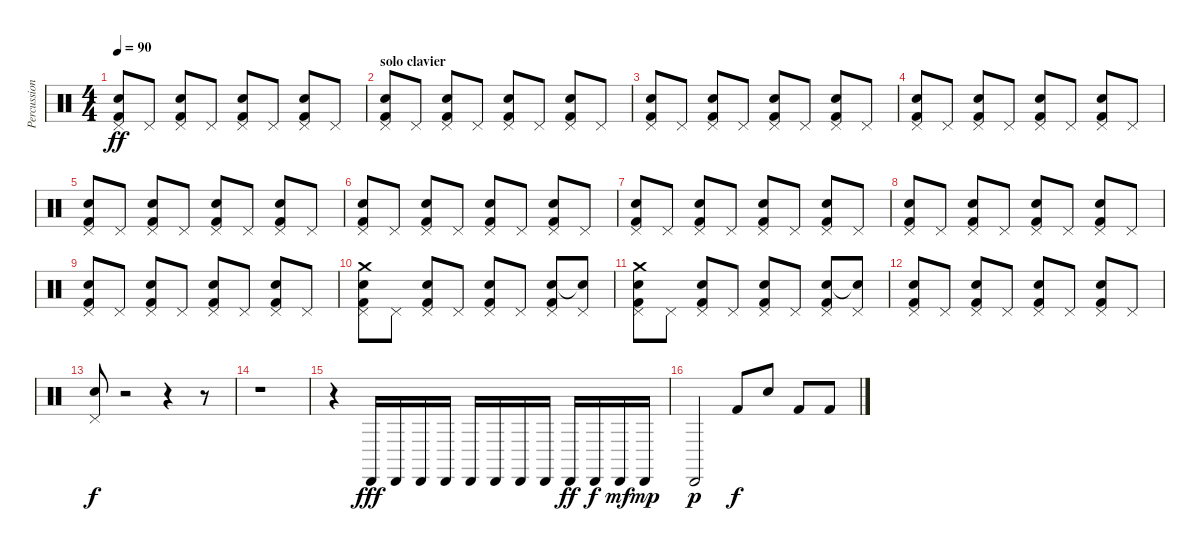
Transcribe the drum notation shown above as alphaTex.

\track ("Percussions" "Percussion") {instrument percussion}
\staff {score}
\articulation defaults
\ts (4 4)
\tempo 90
\clef neutral
\ks c
("Pedal Hi-Hat (hit)" "Electric Snare (hit)" "Kick (hit) 2").8{dy ff} "Pedal Hi-Hat (hit)".8 ("Pedal Hi-Hat (hit)" "Electric Snare (hit)" "Kick (hit) 2").8 "Pedal Hi-Hat (hit)".8 ("Pedal Hi-Hat (hit)" "Electric Snare (hit)" "Kick (hit) 2").8 "Pedal Hi-Hat (hit)".8 ("Pedal Hi-Hat (hit)" "Electric Snare (hit)" "Kick (hit) 2").8 "Pedal Hi-Hat (hit)".8 |
\section ("" "solo clavier")
("Pedal Hi-Hat (hit)" "Electric Snare (hit)" "Kick (hit) 2").8 "Pedal Hi-Hat (hit)".8 ("Pedal Hi-Hat (hit)" "Electric Snare (hit)" "Kick (hit) 2").8 "Pedal Hi-Hat (hit)".8 ("Pedal Hi-Hat (hit)" "Electric Snare (hit)" "Kick (hit) 2").8 "Pedal Hi-Hat (hit)".8 ("Pedal Hi-Hat (hit)" "Electric Snare (hit)" "Kick (hit) 2").8 "Pedal Hi-Hat (hit)".8 |
("Pedal Hi-Hat (hit)" "Electric Snare (hit)" "Kick (hit) 2").8 "Pedal Hi-Hat (hit)".8 ("Pedal Hi-Hat (hit)" "Electric Snare (hit)" "Kick (hit) 2").8 "Pedal Hi-Hat (hit)".8 ("Pedal Hi-Hat (hit)" "Electric Snare (hit)" "Kick (hit) 2").8 "Pedal Hi-Hat (hit)".8 ("Pedal Hi-Hat (hit)" "Electric Snare (hit)" "Kick (hit) 2").8 "Pedal Hi-Hat (hit)".8 |
("Pedal Hi-Hat (hit)" "Electric Snare (hit)" "Kick (hit) 2").8 "Pedal Hi-Hat (hit)".8 ("Pedal Hi-Hat (hit)" "Electric Snare (hit)" "Kick (hit) 2").8 "Pedal Hi-Hat (hit)".8 ("Pedal Hi-Hat (hit)" "Electric Snare (hit)" "Kick (hit) 2").8 "Pedal Hi-Hat (hit)".8 ("Pedal Hi-Hat (hit)" "Electric Snare (hit)" "Kick (hit) 2").8 "Pedal Hi-Hat (hit)".8 |
("Pedal Hi-Hat (hit)" "Electric Snare (hit)" "Kick (hit) 2").8 "Pedal Hi-Hat (hit)".8 ("Pedal Hi-Hat (hit)" "Electric Snare (hit)" "Kick (hit) 2").8 "Pedal Hi-Hat (hit)".8 ("Pedal Hi-Hat (hit)" "Electric Snare (hit)" "Kick (hit) 2").8 "Pedal Hi-Hat (hit)".8 ("Pedal Hi-Hat (hit)" "Electric Snare (hit)" "Kick (hit) 2").8 "Pedal Hi-Hat (hit)".8 |
("Pedal Hi-Hat (hit)" "Electric Snare (hit)" "Kick (hit) 2").8 "Pedal Hi-Hat (hit)".8 ("Pedal Hi-Hat (hit)" "Electric Snare (hit)" "Kick (hit) 2").8 "Pedal Hi-Hat (hit)".8 ("Pedal Hi-Hat (hit)" "Electric Snare (hit)" "Kick (hit) 2").8 "Pedal Hi-Hat (hit)".8 ("Pedal Hi-Hat (hit)" "Electric Snare (hit)" "Kick (hit) 2").8 "Pedal Hi-Hat (hit)".8 |
("Pedal Hi-Hat (hit)" "Electric Snare (hit)" "Kick (hit) 2").8 "Pedal Hi-Hat (hit)".8 ("Pedal Hi-Hat (hit)" "Electric Snare (hit)" "Kick (hit) 2").8 "Pedal Hi-Hat (hit)".8 ("Pedal Hi-Hat (hit)" "Electric Snare (hit)" "Kick (hit) 2").8 "Pedal Hi-Hat (hit)".8 ("Pedal Hi-Hat (hit)" "Electric Snare (hit)" "Kick (hit) 2").8 "Pedal Hi-Hat (hit)".8 |
("Pedal Hi-Hat (hit)" "Electric Snare (hit)" "Kick (hit) 2").8 "Pedal Hi-Hat (hit)".8 ("Pedal Hi-Hat (hit)" "Electric Snare (hit)" "Kick (hit) 2").8 "Pedal Hi-Hat (hit)".8 ("Pedal Hi-Hat (hit)" "Electric Snare (hit)" "Kick (hit) 2").8 "Pedal Hi-Hat (hit)".8 ("Pedal Hi-Hat (hit)" "Electric Snare (hit)" "Kick (hit) 2").8 "Pedal Hi-Hat (hit)".8 |
("Pedal Hi-Hat (hit)" "Electric Snare (hit)" "Kick (hit) 2").8 "Pedal Hi-Hat (hit)".8 ("Pedal Hi-Hat (hit)" "Electric Snare (hit)" "Kick (hit) 2").8 "Pedal Hi-Hat (hit)".8 ("Pedal Hi-Hat (hit)" "Electric Snare (hit)" "Kick (hit) 2").8 "Pedal Hi-Hat (hit)".8 ("Pedal Hi-Hat (hit)" "Electric Snare (hit)" "Kick (hit) 2").8 "Pedal Hi-Hat (hit)".8 |
("Pedal Hi-Hat (hit)" "Crash medium (hit)" "Electric Snare (hit)" "Kick (hit) 2").8 "Pedal Hi-Hat (hit)".8 ("Pedal Hi-Hat (hit)" "Electric Snare (hit)" "Kick (hit) 2").8 "Pedal Hi-Hat (hit)".8 ("Pedal Hi-Hat (hit)" "Electric Snare (hit)" "Kick (hit) 2").8 "Pedal Hi-Hat (hit)".8 ("Pedal Hi-Hat (hit)" "Electric Snare (hit)" "Kick (hit) 2").8 ("Pedal Hi-Hat (hit)" "Snare (hit)"{t}).8 |
("Pedal Hi-Hat (hit)" "Crash medium (hit)" "Electric Snare (hit)" "Kick (hit) 2").8 "Pedal Hi-Hat (hit)".8 ("Pedal Hi-Hat (hit)" "Electric Snare (hit)" "Kick (hit) 2").8 "Pedal Hi-Hat (hit)".8 ("Pedal Hi-Hat (hit)" "Electric Snare (hit)" "Kick (hit) 2").8 "Pedal Hi-Hat (hit)".8 ("Pedal Hi-Hat (hit)" "Electric Snare (hit)" "Kick (hit) 2").8 ("Pedal Hi-Hat (hit)" "Snare (hit)"{t}).8 |
("Pedal Hi-Hat (hit)" "Electric Snare (hit)" "Kick (hit) 2").8 "Pedal Hi-Hat (hit)".8 ("Pedal Hi-Hat (hit)" "Electric Snare (hit)" "Kick (hit) 2").8 "Pedal Hi-Hat (hit)".8 ("Pedal Hi-Hat (hit)" "Electric Snare (hit)" "Kick (hit) 2").8 "Pedal Hi-Hat (hit)".8 ("Pedal Hi-Hat (hit)" "Electric Snare (hit)" "Kick (hit) 2").8 "Pedal Hi-Hat (hit)".8 |
("Pedal Hi-Hat (hit)" "Electric Snare (hit)").8{dy f} r.2 r.4 r.8 |
r.1 |
r.4 "Cabasa (hit)".16{dy fff} "Cabasa (hit)".16 "Cabasa (hit)".16 "Cabasa (hit)".16 "Cabasa (hit)".16 "Cabasa (hit)".16 "Cabasa (hit)".16 "Cabasa (hit)".16 "Cabasa (hit)".16{dy ff} "Cabasa (hit)".16{dy f} "Cabasa (hit)".16{dy mf} "Cabasa (hit)".16{dy mp} |
"Cabasa (hit)".2{dy p} "Kick (hit) 2".8{dy f} "Electric Snare (hit)".8 "Kick (hit) 2".8 "Kick (hit) 2".8
